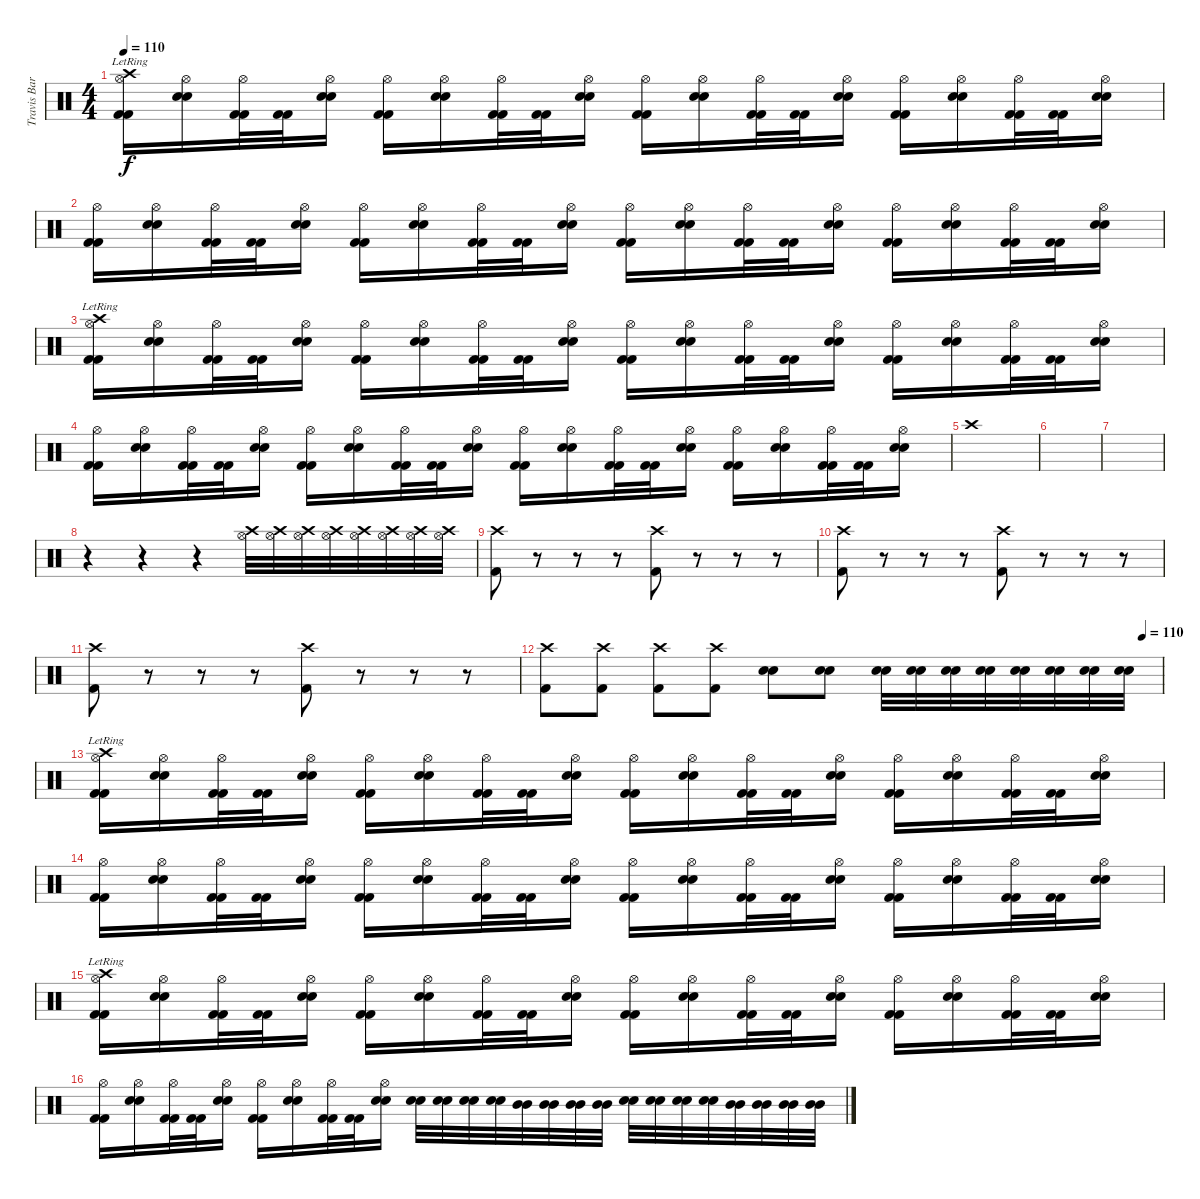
\track ("Travis Barker - Drums" "Travis Bar") {instrument percussion}
\staff {score}
\articulation defaults
\ts (4 4)
\tempo 110
\clef neutral
\ks c
("Kick (hit) 2" "Kick (hit) 2" "Hi-Hat (open)" "Crash high (hit)"{lr}).16{dy f} ("Snare (hit) 2" "Snare (hit) 2" "Hi-Hat (open)").16 ("Kick (hit) 2" "Kick (hit) 2" "Hi-Hat (open)").32 ("Kick (hit) 2" "Kick (hit) 2").32 ("Snare (hit) 2" "Snare (hit) 2" "Hi-Hat (open)").16 ("Kick (hit) 2" "Kick (hit) 2" "Hi-Hat (open)").16 ("Snare (hit) 2" "Snare (hit) 2" "Hi-Hat (open)").16 ("Kick (hit) 2" "Kick (hit) 2" "Hi-Hat (open)").32 ("Kick (hit) 2" "Kick (hit) 2").32 ("Snare (hit) 2" "Snare (hit) 2" "Hi-Hat (open)").16 ("Kick (hit) 2" "Kick (hit) 2" "Hi-Hat (open)").16 ("Snare (hit) 2" "Snare (hit) 2" "Hi-Hat (open)").16 ("Kick (hit) 2" "Kick (hit) 2" "Hi-Hat (open)").32 ("Kick (hit) 2" "Kick (hit) 2").32 ("Snare (hit) 2" "Snare (hit) 2" "Hi-Hat (open)").16 ("Kick (hit) 2" "Kick (hit) 2" "Hi-Hat (open)").16 ("Snare (hit) 2" "Snare (hit) 2" "Hi-Hat (open)").16 ("Kick (hit) 2" "Kick (hit) 2" "Hi-Hat (open)").32 ("Kick (hit) 2" "Kick (hit) 2").32 ("Snare (hit) 2" "Snare (hit) 2" "Hi-Hat (open)").16 |
("Kick (hit) 2" "Kick (hit) 2" "Hi-Hat (open)").16 ("Snare (hit) 2" "Snare (hit) 2" "Hi-Hat (open)").16 ("Kick (hit) 2" "Kick (hit) 2" "Hi-Hat (open)").32 ("Kick (hit) 2" "Kick (hit) 2").32 ("Snare (hit) 2" "Snare (hit) 2" "Hi-Hat (open)").16 ("Kick (hit) 2" "Kick (hit) 2" "Hi-Hat (open)").16 ("Snare (hit) 2" "Snare (hit) 2" "Hi-Hat (open)").16 ("Kick (hit) 2" "Kick (hit) 2" "Hi-Hat (open)").32 ("Kick (hit) 2" "Kick (hit) 2").32 ("Snare (hit) 2" "Snare (hit) 2" "Hi-Hat (open)").16 ("Kick (hit) 2" "Kick (hit) 2" "Hi-Hat (open)").16 ("Snare (hit) 2" "Snare (hit) 2" "Hi-Hat (open)").16 ("Kick (hit) 2" "Kick (hit) 2" "Hi-Hat (open)").32 ("Kick (hit) 2" "Kick (hit) 2").32 ("Snare (hit) 2" "Snare (hit) 2" "Hi-Hat (open)").16 ("Kick (hit) 2" "Kick (hit) 2" "Hi-Hat (open)").16 ("Snare (hit) 2" "Snare (hit) 2" "Hi-Hat (open)").16 ("Kick (hit) 2" "Kick (hit) 2" "Hi-Hat (open)").32 ("Kick (hit) 2" "Kick (hit) 2").32 ("Snare (hit) 2" "Snare (hit) 2" "Hi-Hat (open)").16 |
("Kick (hit) 2" "Kick (hit) 2" "Hi-Hat (open)" "Crash high (hit)"{lr}).16 ("Snare (hit) 2" "Snare (hit) 2" "Hi-Hat (open)").16 ("Kick (hit) 2" "Kick (hit) 2" "Hi-Hat (open)").32 ("Kick (hit) 2" "Kick (hit) 2").32 ("Snare (hit) 2" "Snare (hit) 2" "Hi-Hat (open)").16 ("Kick (hit) 2" "Kick (hit) 2" "Hi-Hat (open)").16 ("Snare (hit) 2" "Snare (hit) 2" "Hi-Hat (open)").16 ("Kick (hit) 2" "Kick (hit) 2" "Hi-Hat (open)").32 ("Kick (hit) 2" "Kick (hit) 2").32 ("Snare (hit) 2" "Snare (hit) 2" "Hi-Hat (open)").16 ("Kick (hit) 2" "Kick (hit) 2" "Hi-Hat (open)").16 ("Snare (hit) 2" "Snare (hit) 2" "Hi-Hat (open)").16 ("Kick (hit) 2" "Kick (hit) 2" "Hi-Hat (open)").32 ("Kick (hit) 2" "Kick (hit) 2").32 ("Snare (hit) 2" "Snare (hit) 2" "Hi-Hat (open)").16 ("Kick (hit) 2" "Kick (hit) 2" "Hi-Hat (open)").16 ("Snare (hit) 2" "Snare (hit) 2" "Hi-Hat (open)").16 ("Kick (hit) 2" "Kick (hit) 2" "Hi-Hat (open)").32 ("Kick (hit) 2" "Kick (hit) 2").32 ("Snare (hit) 2" "Snare (hit) 2" "Hi-Hat (open)").16 |
("Kick (hit) 2" "Kick (hit) 2" "Hi-Hat (open)").16 ("Snare (hit) 2" "Snare (hit) 2" "Hi-Hat (open)").16 ("Kick (hit) 2" "Kick (hit) 2" "Hi-Hat (open)").32 ("Kick (hit) 2" "Kick (hit) 2").32 ("Snare (hit) 2" "Snare (hit) 2" "Hi-Hat (open)").16 ("Kick (hit) 2" "Kick (hit) 2" "Hi-Hat (open)").16 ("Snare (hit) 2" "Snare (hit) 2" "Hi-Hat (open)").16 ("Kick (hit) 2" "Kick (hit) 2" "Hi-Hat (open)").32 ("Kick (hit) 2" "Kick (hit) 2").32 ("Snare (hit) 2" "Snare (hit) 2" "Hi-Hat (open)").16 ("Kick (hit) 2" "Kick (hit) 2" "Hi-Hat (open)").16 ("Snare (hit) 2" "Snare (hit) 2" "Hi-Hat (open)").16 ("Kick (hit) 2" "Kick (hit) 2" "Hi-Hat (open)").32 ("Kick (hit) 2" "Kick (hit) 2").32 ("Snare (hit) 2" "Snare (hit) 2" "Hi-Hat (open)").16 ("Kick (hit) 2" "Kick (hit) 2" "Hi-Hat (open)").16 ("Snare (hit) 2" "Snare (hit) 2" "Hi-Hat (open)").16 ("Kick (hit) 2" "Kick (hit) 2" "Hi-Hat (open)").32 ("Kick (hit) 2" "Kick (hit) 2").32 ("Snare (hit) 2" "Snare (hit) 2" "Hi-Hat (open)").16 |
"Crash high (hit)".1 |
|
|
r.4 r.4 r.4 ("Crash high (hit)" "Hi-Hat (open)").32 ("Crash high (hit)" "Hi-Hat (open)").32 ("Crash high (hit)" "Hi-Hat (open)").32 ("Crash high (hit)" "Hi-Hat (open)").32 ("Crash high (hit)" "Hi-Hat (open)").32 ("Crash high (hit)" "Hi-Hat (open)").32 ("Crash high (hit)" "Hi-Hat (open)").32 ("Crash high (hit)" "Hi-Hat (open)").32 |
("Crash high (hit)" "Kick (hit) 2").8 r.8 r.8 r.8 ("Crash high (hit)" "Kick (hit) 2").8 r.8 r.8 r.8 |
("Crash high (hit)" "Kick (hit) 2").8 r.8 r.8 r.8 ("Crash high (hit)" "Kick (hit) 2").8 r.8 r.8 r.8 |
("Crash high (hit)" "Kick (hit) 2").8 r.8 r.8 r.8 ("Crash high (hit)" "Kick (hit) 2").8 r.8 r.8 r.8 |
\tempo (110 0.96875)
("Crash high (hit)" "Kick (hit) 2").8 ("Crash high (hit)" "Kick (hit) 2").8 ("Crash high (hit)" "Kick (hit) 2").8 ("Crash high (hit)" "Kick (hit) 2").8 ("Snare (hit) 2" "Snare (hit) 2").8 ("Snare (hit) 2" "Snare (hit) 2").8 ("Snare (hit) 2" "Snare (hit) 2").32 ("Snare (hit) 2" "Snare (hit) 2").32 ("Snare (hit) 2" "Snare (hit) 2").32 ("Snare (hit) 2" "Snare (hit) 2").32 ("Snare (hit) 2" "Snare (hit) 2").32 ("Snare (hit) 2" "Snare (hit) 2").32 ("Snare (hit) 2" "Snare (hit) 2").32 ("Snare (hit) 2" "Snare (hit) 2").32 |
("Kick (hit) 2" "Kick (hit) 2" "Hi-Hat (open)" "Crash high (hit)"{lr}).16 ("Snare (hit) 2" "Snare (hit) 2" "Hi-Hat (open)").16 ("Kick (hit) 2" "Kick (hit) 2" "Hi-Hat (open)").32 ("Kick (hit) 2" "Kick (hit) 2").32 ("Snare (hit) 2" "Snare (hit) 2" "Hi-Hat (open)").16 ("Kick (hit) 2" "Kick (hit) 2" "Hi-Hat (open)").16 ("Snare (hit) 2" "Snare (hit) 2" "Hi-Hat (open)").16 ("Kick (hit) 2" "Kick (hit) 2" "Hi-Hat (open)").32 ("Kick (hit) 2" "Kick (hit) 2").32 ("Snare (hit) 2" "Snare (hit) 2" "Hi-Hat (open)").16 ("Kick (hit) 2" "Kick (hit) 2" "Hi-Hat (open)").16 ("Snare (hit) 2" "Snare (hit) 2" "Hi-Hat (open)").16 ("Kick (hit) 2" "Kick (hit) 2" "Hi-Hat (open)").32 ("Kick (hit) 2" "Kick (hit) 2").32 ("Snare (hit) 2" "Snare (hit) 2" "Hi-Hat (open)").16 ("Kick (hit) 2" "Kick (hit) 2" "Hi-Hat (open)").16 ("Snare (hit) 2" "Snare (hit) 2" "Hi-Hat (open)").16 ("Kick (hit) 2" "Kick (hit) 2" "Hi-Hat (open)").32 ("Kick (hit) 2" "Kick (hit) 2").32 ("Snare (hit) 2" "Snare (hit) 2" "Hi-Hat (open)").16 |
("Kick (hit) 2" "Kick (hit) 2" "Hi-Hat (open)").16 ("Snare (hit) 2" "Snare (hit) 2" "Hi-Hat (open)").16 ("Kick (hit) 2" "Kick (hit) 2" "Hi-Hat (open)").32 ("Kick (hit) 2" "Kick (hit) 2").32 ("Snare (hit) 2" "Snare (hit) 2" "Hi-Hat (open)").16 ("Kick (hit) 2" "Kick (hit) 2" "Hi-Hat (open)").16 ("Snare (hit) 2" "Snare (hit) 2" "Hi-Hat (open)").16 ("Kick (hit) 2" "Kick (hit) 2" "Hi-Hat (open)").32 ("Kick (hit) 2" "Kick (hit) 2").32 ("Snare (hit) 2" "Snare (hit) 2" "Hi-Hat (open)").16 ("Kick (hit) 2" "Kick (hit) 2" "Hi-Hat (open)").16 ("Snare (hit) 2" "Snare (hit) 2" "Hi-Hat (open)").16 ("Kick (hit) 2" "Kick (hit) 2" "Hi-Hat (open)").32 ("Kick (hit) 2" "Kick (hit) 2").32 ("Snare (hit) 2" "Snare (hit) 2" "Hi-Hat (open)").16 ("Kick (hit) 2" "Kick (hit) 2" "Hi-Hat (open)").16 ("Snare (hit) 2" "Snare (hit) 2" "Hi-Hat (open)").16 ("Kick (hit) 2" "Kick (hit) 2" "Hi-Hat (open)").32 ("Kick (hit) 2" "Kick (hit) 2").32 ("Snare (hit) 2" "Snare (hit) 2" "Hi-Hat (open)").16 |
("Kick (hit) 2" "Kick (hit) 2" "Hi-Hat (open)" "Crash high (hit)"{lr}).16 ("Snare (hit) 2" "Snare (hit) 2" "Hi-Hat (open)").16 ("Kick (hit) 2" "Kick (hit) 2" "Hi-Hat (open)").32 ("Kick (hit) 2" "Kick (hit) 2").32 ("Snare (hit) 2" "Snare (hit) 2" "Hi-Hat (open)").16 ("Kick (hit) 2" "Kick (hit) 2" "Hi-Hat (open)").16 ("Snare (hit) 2" "Snare (hit) 2" "Hi-Hat (open)").16 ("Kick (hit) 2" "Kick (hit) 2" "Hi-Hat (open)").32 ("Kick (hit) 2" "Kick (hit) 2").32 ("Snare (hit) 2" "Snare (hit) 2" "Hi-Hat (open)").16 ("Kick (hit) 2" "Kick (hit) 2" "Hi-Hat (open)").16 ("Snare (hit) 2" "Snare (hit) 2" "Hi-Hat (open)").16 ("Kick (hit) 2" "Kick (hit) 2" "Hi-Hat (open)").32 ("Kick (hit) 2" "Kick (hit) 2").32 ("Snare (hit) 2" "Snare (hit) 2" "Hi-Hat (open)").16 ("Kick (hit) 2" "Kick (hit) 2" "Hi-Hat (open)").16 ("Snare (hit) 2" "Snare (hit) 2" "Hi-Hat (open)").16 ("Kick (hit) 2" "Kick (hit) 2" "Hi-Hat (open)").32 ("Kick (hit) 2" "Kick (hit) 2").32 ("Snare (hit) 2" "Snare (hit) 2" "Hi-Hat (open)").16 |
("Kick (hit) 2" "Kick (hit) 2" "Hi-Hat (open)").16 ("Snare (hit) 2" "Snare (hit) 2" "Hi-Hat (open)").16 ("Kick (hit) 2" "Kick (hit) 2" "Hi-Hat (open)").32 ("Kick (hit) 2" "Kick (hit) 2").32 ("Snare (hit) 2" "Snare (hit) 2" "Hi-Hat (open)").16 ("Kick (hit) 2" "Kick (hit) 2" "Hi-Hat (open)").16 ("Snare (hit) 2" "Snare (hit) 2" "Hi-Hat (open)").16 ("Kick (hit) 2" "Kick (hit) 2" "Hi-Hat (open)").32 ("Kick (hit) 2" "Kick (hit) 2").32 ("Snare (hit) 2" "Snare (hit) 2" "Hi-Hat (open)").16 ("Snare (hit) 2" "Snare (hit) 2").32 ("Snare (hit) 2" "Snare (hit) 2").32 ("Snare (hit) 2" "Snare (hit) 2").32 ("Snare (hit) 2" "Snare (hit) 2").32 ("Mid Tom (hit)" "Mid Tom (hit)").32 ("Mid Tom (hit)" "Mid Tom (hit)").32 ("Mid Tom (hit)" "Mid Tom (hit)").32 ("Mid Tom (hit)" "Mid Tom (hit)").32 ("Snare (hit) 2" "Snare (hit) 2").32 ("Snare (hit) 2" "Snare (hit) 2").32 ("Snare (hit) 2" "Snare (hit) 2").32 ("Snare (hit) 2" "Snare (hit) 2").32 ("Mid Tom (hit)" "Mid Tom (hit)").32 ("Mid Tom (hit)" "Mid Tom (hit)").32 ("Mid Tom (hit)" "Mid Tom (hit)").32 ("Mid Tom (hit)" "Mid Tom (hit)").32
